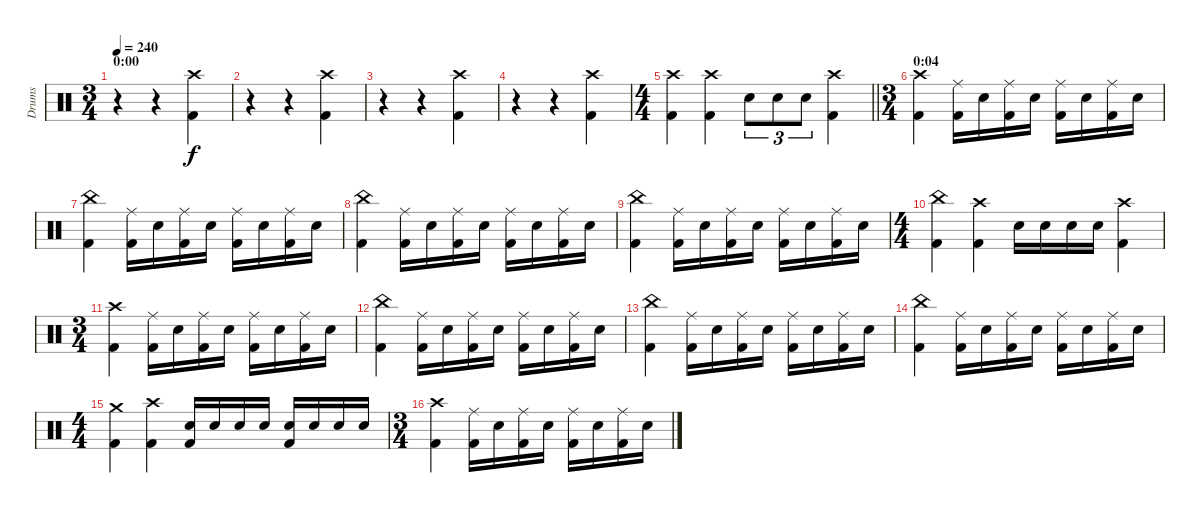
\track ("Drums" "Drums") {instrument percussion}
\staff {score}
\articulation defaults
\ts (3 4)
\section ("" "0:00")
\tempo 240
\clef neutral
\ks c
r.4{dy f} r.4 ("Crash high (hit)" "Kick (hit) 2").4 |
r.4{volume 0} r.4 ("Crash high (hit)" "Kick (hit) 2").4{volume 13} |
r.4{volume 0} r.4 ("Crash high (hit)" "Kick (hit) 2").4{volume 13} |
r.4{volume 0} r.4 ("Crash high (hit)" "Kick (hit) 2").4{volume 13} |
\ts (4 4)
\barLineRight lightlight
("Crash high (hit)" "Kick (hit) 2").4 ("Crash high (hit)" "Kick (hit) 2").4 "Electric Snare (hit)".8{tu (3 2)} "Electric Snare (hit)".8{tu (3 2)} "Electric Snare (hit)".8{tu (3 2)} ("Crash high (hit)" "Kick (hit) 2").4 |
\ts (3 4)
\section ("" "0:04")
("Crash high (hit)" "Kick (hit) 2").4 ("Ride (middle)" "Kick (hit) 2").16 "Electric Snare (hit)".16 ("Ride (middle)" "Kick (hit) 2").16 "Electric Snare (hit)".16 ("Ride (middle)" "Kick (hit) 2").16 "Electric Snare (hit)".16 ("Ride (middle)" "Kick (hit) 2").16 "Electric Snare (hit)".16 |
("China (hit)" "Kick (hit) 2").4 ("Ride (middle)" "Kick (hit) 2").16 "Electric Snare (hit)".16 ("Ride (middle)" "Kick (hit) 2").16 "Electric Snare (hit)".16 ("Ride (middle)" "Kick (hit) 2").16 "Electric Snare (hit)".16 ("Ride (middle)" "Kick (hit) 2").16 "Electric Snare (hit)".16 |
("China (hit)" "Kick (hit) 2").4 ("Ride (middle)" "Kick (hit) 2").16 "Electric Snare (hit)".16 ("Ride (middle)" "Kick (hit) 2").16 "Electric Snare (hit)".16 ("Ride (middle)" "Kick (hit) 2").16 "Electric Snare (hit)".16 ("Ride (middle)" "Kick (hit) 2").16 "Electric Snare (hit)".16 |
("China (hit)" "Kick (hit) 2").4 ("Ride (middle)" "Kick (hit) 2").16 "Electric Snare (hit)".16 ("Ride (middle)" "Kick (hit) 2").16 "Electric Snare (hit)".16 ("Ride (middle)" "Kick (hit) 2").16 "Electric Snare (hit)".16 ("Ride (middle)" "Kick (hit) 2").16 "Electric Snare (hit)".16 |
\ts (4 4)
("China (hit)" "Kick (hit) 2").4 ("Crash high (hit)" "Kick (hit) 2").4 "Electric Snare (hit)".16 "Electric Snare (hit)".16 "Electric Snare (hit)".16 "Electric Snare (hit)".16 ("Crash high (hit)" "Kick (hit) 2").4 |
\ts (3 4)
("Crash high (hit)" "Kick (hit) 2").4 ("Ride (middle)" "Kick (hit) 2").16 "Electric Snare (hit)".16 ("Ride (middle)" "Kick (hit) 2").16 "Electric Snare (hit)".16 ("Ride (middle)" "Kick (hit) 2").16 "Electric Snare (hit)".16 ("Ride (middle)" "Kick (hit) 2").16 "Electric Snare (hit)".16 |
("China (hit)" "Kick (hit) 2").4 ("Ride (middle)" "Kick (hit) 2").16 "Electric Snare (hit)".16 ("Ride (middle)" "Kick (hit) 2").16 "Electric Snare (hit)".16 ("Ride (middle)" "Kick (hit) 2").16 "Electric Snare (hit)".16 ("Ride (middle)" "Kick (hit) 2").16 "Electric Snare (hit)".16 |
("China (hit)" "Kick (hit) 2").4 ("Ride (middle)" "Kick (hit) 2").16 "Electric Snare (hit)".16 ("Ride (middle)" "Kick (hit) 2").16 "Electric Snare (hit)".16 ("Ride (middle)" "Kick (hit) 2").16 "Electric Snare (hit)".16 ("Ride (middle)" "Kick (hit) 2").16 "Electric Snare (hit)".16 |
("China (hit)" "Kick (hit) 2").4 ("Ride (middle)" "Kick (hit) 2").16 "Electric Snare (hit)".16 ("Ride (middle)" "Kick (hit) 2").16 "Electric Snare (hit)".16 ("Ride (middle)" "Kick (hit) 2").16 "Electric Snare (hit)".16 ("Ride (middle)" "Kick (hit) 2").16 "Electric Snare (hit)".16 |
\ts (4 4)
("Crash medium (hit)" "Kick (hit) 2").4 ("Crash high (hit)" "Kick (hit) 2").4 ("Kick (hit) 2" "Electric Snare (hit)").16 "Electric Snare (hit)".16 "Electric Snare (hit)".16 "Electric Snare (hit)".16 ("Kick (hit) 2" "Electric Snare (hit)").16 "Electric Snare (hit)".16 "Electric Snare (hit)".16 "Electric Snare (hit)".16 |
\ts (3 4)
("Crash high (hit)" "Kick (hit) 2").4 ("Ride (middle)" "Kick (hit) 2").16 "Electric Snare (hit)".16 ("Ride (middle)" "Kick (hit) 2").16 "Electric Snare (hit)".16 ("Ride (middle)" "Kick (hit) 2").16 "Electric Snare (hit)".16 ("Ride (middle)" "Kick (hit) 2").16 "Electric Snare (hit)".16
